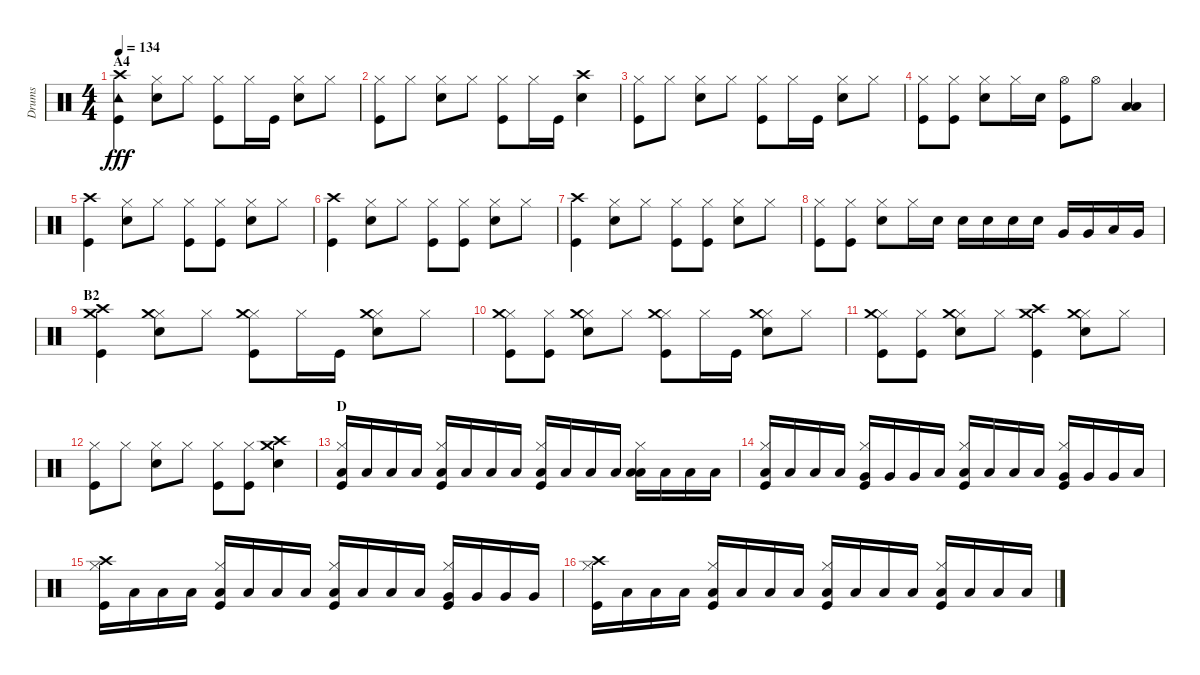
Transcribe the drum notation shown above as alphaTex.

\track ("Drums" "Drums") {instrument percussion}
\staff {score}
\articulation defaults
\ts (4 4)
\section ("" "A4")
\tempo 134
\clef neutral
\ks c
("Crash high (hit)" "Tambourine (hit)" "Kick (hit)").4{dy fff} ("Hi-Hat (closed)" "Snare (hit) 2").8 "Hi-Hat (closed)".8 ("Hi-Hat (closed)" "Kick (hit)").8 "Hi-Hat (closed)".16 "Kick (hit)".16 ("Hi-Hat (closed)" "Snare (hit) 2").8 "Hi-Hat (closed)".8 |
("Hi-Hat (closed)" "Kick (hit)").8 "Hi-Hat (closed)".8 ("Hi-Hat (closed)" "Snare (hit) 2").8 "Hi-Hat (closed)".8 ("Hi-Hat (closed)" "Kick (hit)").8 "Hi-Hat (closed)".16 "Kick (hit)".16 ("Crash high (hit)" "Snare (hit) 2").4 |
("Hi-Hat (closed)" "Kick (hit)").8 "Hi-Hat (closed)".8 ("Hi-Hat (closed)" "Snare (hit) 2").8 "Hi-Hat (closed)".8 ("Hi-Hat (closed)" "Kick (hit)").8 "Hi-Hat (closed)".16 "Kick (hit)".16 ("Hi-Hat (closed)" "Snare (hit) 2").8 "Hi-Hat (closed)".8 |
("Hi-Hat (closed)" "Kick (hit)").8 ("Hi-Hat (closed)" "Kick (hit)").8 ("Hi-Hat (closed)" "Snare (hit) 2").8 "Hi-Hat (closed)".16 "Snare (hit) 2".16 ("Hi-Hat (open)" "Kick (hit)").8 "Hi-Hat (open)".8 ("Low Tom (hit)" "Low Floor Tom (hit)").4 |
("Crash high (hit)" "Kick (hit)").4 ("Hi-Hat (closed)" "Snare (hit) 2").8 "Hi-Hat (closed)".8 ("Hi-Hat (closed)" "Kick (hit)").8 ("Hi-Hat (closed)" "Kick (hit)").8 ("Hi-Hat (closed)" "Snare (hit) 2").8 "Hi-Hat (closed)".8 |
("Crash high (hit)" "Kick (hit)").4 ("Hi-Hat (closed)" "Snare (hit) 2").8 "Hi-Hat (closed)".8 ("Hi-Hat (closed)" "Kick (hit)").8 ("Hi-Hat (closed)" "Kick (hit)").8 ("Hi-Hat (closed)" "Snare (hit) 2").8 "Hi-Hat (closed)".8 |
("Crash high (hit)" "Kick (hit)").4 ("Hi-Hat (closed)" "Snare (hit) 2").8 "Hi-Hat (closed)".8 ("Hi-Hat (closed)" "Kick (hit)").8 ("Hi-Hat (closed)" "Kick (hit)").8 ("Hi-Hat (closed)" "Snare (hit) 2").8 "Hi-Hat (closed)".8 |
("Hi-Hat (closed)" "Kick (hit)").8 ("Hi-Hat (closed)" "Kick (hit)").8 ("Hi-Hat (closed)" "Snare (hit) 2").8 "Hi-Hat (closed)".16 "Snare (hit) 2".16 "Snare (hit) 2".16 "Snare (hit) 2".16 "Snare (hit) 2".16 "Snare (hit) 2".16 "Very Low Tom (hit)".16 "Very Low Tom (hit)".16 "Low Floor Tom (hit)".16 "Very Low Tom (hit)".16 |
\section ("" "B2")
("Crash high (hit)" "Crash medium (hit)" "Kick (hit)").4 ("Hi-Hat (closed)" "Crash medium (hit)" "Snare (hit) 2").8 "Hi-Hat (closed)".8 ("Hi-Hat (closed)" "Crash medium (hit)" "Kick (hit)").8 "Hi-Hat (closed)".16 "Kick (hit)".16 ("Hi-Hat (closed)" "Crash medium (hit)" "Snare (hit) 2").8 "Hi-Hat (closed)".8 |
("Hi-Hat (closed)" "Crash medium (hit)" "Kick (hit)").8 ("Hi-Hat (closed)" "Kick (hit)").8 ("Hi-Hat (closed)" "Crash medium (hit)" "Snare (hit) 2").8 "Hi-Hat (closed)".8 ("Hi-Hat (closed)" "Crash medium (hit)" "Kick (hit)").8 "Hi-Hat (closed)".16 "Kick (hit)".16 ("Hi-Hat (closed)" "Crash medium (hit)" "Snare (hit) 2").8 "Hi-Hat (closed)".8 |
("Hi-Hat (closed)" "Crash medium (hit)" "Kick (hit)").8 ("Hi-Hat (closed)" "Kick (hit)").8 ("Hi-Hat (closed)" "Crash medium (hit)" "Snare (hit) 2").8 "Hi-Hat (closed)".8 ("Crash high (hit)" "Crash medium (hit)" "Kick (hit)").4 ("Hi-Hat (closed)" "Crash medium (hit)" "Snare (hit) 2").8 "Hi-Hat (closed)".8 |
("Hi-Hat (closed)" "Kick (hit)").8 "Hi-Hat (closed)".8 ("Hi-Hat (closed)" "Snare (hit) 2").8 "Hi-Hat (closed)".8 ("Hi-Hat (closed)" "Kick (hit)").8 ("Hi-Hat (closed)" "Kick (hit)").8 ("Crash high (hit)" "Crash medium (hit)" "Snare (hit) 2").4 |
\section ("" "D")
("Hi-Hat (closed)" "Low Tom (hit)" "Kick (hit)").16 "Low Tom (hit)".16 "Low Tom (hit)".16 "Low Tom (hit)".16 ("Hi-Hat (closed)" "Low Floor Tom (hit)" "Kick (hit)").16 "Low Floor Tom (hit)".16 "Low Floor Tom (hit)".16 "Low Tom (hit)".16 ("Hi-Hat (closed)" "Low Tom (hit)" "Kick (hit)").16 "Low Tom (hit)".16 "Low Tom (hit)".16 "Low Tom (hit)".16 ("Hi-Hat (closed)" "Low Floor Tom (hit)" "Low Floor Tom (hit)").16 "Low Floor Tom (hit)".16 "Low Floor Tom (hit)".16 "Low Tom (hit)".16 |
("Hi-Hat (closed)" "Low Tom (hit)" "Kick (hit)").16 "Low Tom (hit)".16 "Low Tom (hit)".16 "Low Tom (hit)".16 ("Hi-Hat (closed)" "Very Low Tom (hit)" "Kick (hit)").16 "Very Low Tom (hit)".16 "Very Low Tom (hit)".16 "Low Tom (hit)".16 ("Hi-Hat (closed)" "Low Tom (hit)" "Kick (hit)").16 "Low Tom (hit)".16 "Low Tom (hit)".16 "Low Tom (hit)".16 ("Hi-Hat (closed)" "Very Low Tom (hit)" "Kick (hit)").16 "Very Low Tom (hit)".16 "Very Low Tom (hit)".16 "Low Tom (hit)".16 |
("Hi-Hat (closed)" "Crash high (hit)" "Kick (hit)").16 "Low Tom (hit)".16 "Low Tom (hit)".16 "Low Tom (hit)".16 ("Hi-Hat (closed)" "Low Tom (hit)" "Kick (hit)").16 "Low Tom (hit)".16 "Low Tom (hit)".16 "Low Tom (hit)".16 ("Hi-Hat (closed)" "Low Tom (hit)" "Kick (hit)").16 "Low Tom (hit)".16 "Low Tom (hit)".16 "Low Tom (hit)".16 ("Hi-Hat (closed)" "Very Low Tom (hit)" "Kick (hit)").16 "Very Low Tom (hit)".16 "Very Low Tom (hit)".16 "Very Low Tom (hit)".16 |
("Hi-Hat (closed)" "Crash high (hit)" "Kick (hit)").16 "Low Tom (hit)".16 "Low Tom (hit)".16 "Low Tom (hit)".16 ("Hi-Hat (closed)" "Low Tom (hit)" "Kick (hit)").16 "Low Tom (hit)".16 "Low Tom (hit)".16 "Low Tom (hit)".16 ("Hi-Hat (closed)" "Low Tom (hit)" "Kick (hit)").16 "Low Tom (hit)".16 "Low Tom (hit)".16 "Low Tom (hit)".16 ("Hi-Hat (closed)" "Low Tom (hit)" "Kick (hit)").16 "Low Tom (hit)".16 "Low Floor Tom (hit)".16 "Low Tom (hit)".16
